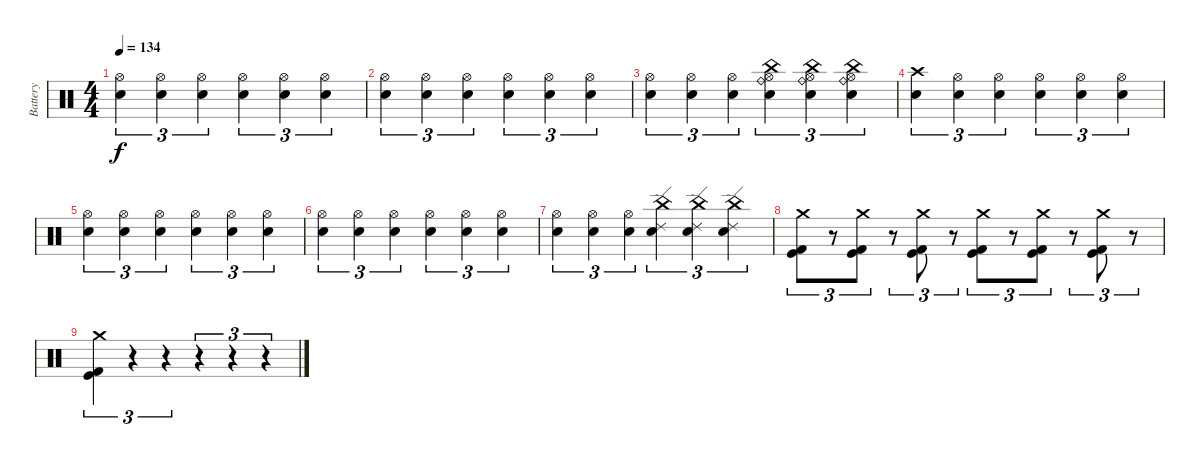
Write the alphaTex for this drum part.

\track ("Battery" "Battery") {instrument percussion}
\staff {score}
\articulation defaults
\ts (4 4)
\tempo 134
\clef neutral
\ks c
("Electric Snare (hit)" "Hi-Hat (open)").4{tu (3 2) dy f} ("Electric Snare (hit)" "Hi-Hat (open)").4{tu (3 2)} ("Electric Snare (hit)" "Hi-Hat (open)").4{tu (3 2)} ("Electric Snare (hit)" "Hi-Hat (open)").4{tu (3 2)} ("Electric Snare (hit)" "Hi-Hat (open)").4{tu (3 2)} ("Electric Snare (hit)" "Hi-Hat (open)").4{tu (3 2)} |
("Electric Snare (hit)" "Hi-Hat (open)").4{tu (3 2)} ("Electric Snare (hit)" "Hi-Hat (open)").4{tu (3 2)} ("Electric Snare (hit)" "Hi-Hat (open)").4{tu (3 2)} ("Electric Snare (hit)" "Hi-Hat (open)").4{tu (3 2)} ("Electric Snare (hit)" "Hi-Hat (open)").4{tu (3 2)} ("Electric Snare (hit)" "Hi-Hat (open)").4{tu (3 2)} |
("Electric Snare (hit)" "Hi-Hat (open)").4{tu (3 2)} ("Electric Snare (hit)" "Hi-Hat (open)").4{tu (3 2)} ("Electric Snare (hit)" "Hi-Hat (open)").4{tu (3 2)} ("Electric Snare (hit)" "China (hit)" "Hi-Hat (open)" "Ride (bell)").4{tu (3 2)} ("Electric Snare (hit)" "China (hit)" "Hi-Hat (open)" "Ride (bell)").4{tu (3 2)} ("Electric Snare (hit)" "China (hit)" "Hi-Hat (open)" "Ride (bell)").4{tu (3 2)} |
("Electric Snare (hit)" "Crash high (hit)").4{tu (3 2)} ("Electric Snare (hit)" "Hi-Hat (open)").4{tu (3 2)} ("Electric Snare (hit)" "Hi-Hat (open)").4{tu (3 2)} ("Electric Snare (hit)" "Hi-Hat (open)").4{tu (3 2)} ("Electric Snare (hit)" "Hi-Hat (open)").4{tu (3 2)} ("Electric Snare (hit)" "Hi-Hat (open)").4{tu (3 2)} |
("Electric Snare (hit)" "Hi-Hat (open)").4{tu (3 2)} ("Electric Snare (hit)" "Hi-Hat (open)").4{tu (3 2)} ("Electric Snare (hit)" "Hi-Hat (open)").4{tu (3 2)} ("Electric Snare (hit)" "Hi-Hat (open)").4{tu (3 2)} ("Electric Snare (hit)" "Hi-Hat (open)").4{tu (3 2)} ("Electric Snare (hit)" "Hi-Hat (open)").4{tu (3 2)} |
("Electric Snare (hit)" "Hi-Hat (open)").4{tu (3 2)} ("Electric Snare (hit)" "Hi-Hat (open)").4{tu (3 2)} ("Electric Snare (hit)" "Hi-Hat (open)").4{tu (3 2)} ("Electric Snare (hit)" "Hi-Hat (open)").4{tu (3 2)} ("Electric Snare (hit)" "Hi-Hat (open)").4{tu (3 2)} ("Electric Snare (hit)" "Hi-Hat (open)").4{tu (3 2)} |
("Electric Snare (hit)" "Hi-Hat (open)").4{tu (3 2)} ("Electric Snare (hit)" "Hi-Hat (open)").4{tu (3 2)} ("Electric Snare (hit)" "Hi-Hat (open)").4{tu (3 2)} ("Electric Snare (hit)" "China (hit)" "Ride (edge) 2").4{tu (3 2)} ("Electric Snare (hit)" "China (hit)" "Ride (edge) 2").4{tu (3 2)} ("Electric Snare (hit)" "China (hit)" "Ride (edge) 2").4{tu (3 2)} |
("Kick (hit)" "Kick (hit) 2" "Crash medium (hit)").8{tu (3 2)} r.8{tu (3 2)} ("Kick (hit)" "Kick (hit) 2" "Crash medium (hit)").8{tu (3 2)} r.8{tu (3 2)} ("Kick (hit)" "Kick (hit) 2" "Crash medium (hit)").8{tu (3 2)} r.8{tu (3 2)} ("Kick (hit)" "Kick (hit) 2" "Crash medium (hit)").8{tu (3 2)} r.8{tu (3 2)} ("Kick (hit)" "Kick (hit) 2" "Crash medium (hit)").8{tu (3 2)} r.8{tu (3 2)} ("Kick (hit)" "Kick (hit) 2" "Crash medium (hit)").8{tu (3 2)} r.8{tu (3 2)} |
("Kick (hit)" "Kick (hit) 2" "Crash medium (hit)").4{tu (3 2)} r.4{tu (3 2)} r.4{tu (3 2)} r.4{tu (3 2)} r.4{tu (3 2)} r.4{tu (3 2)}
